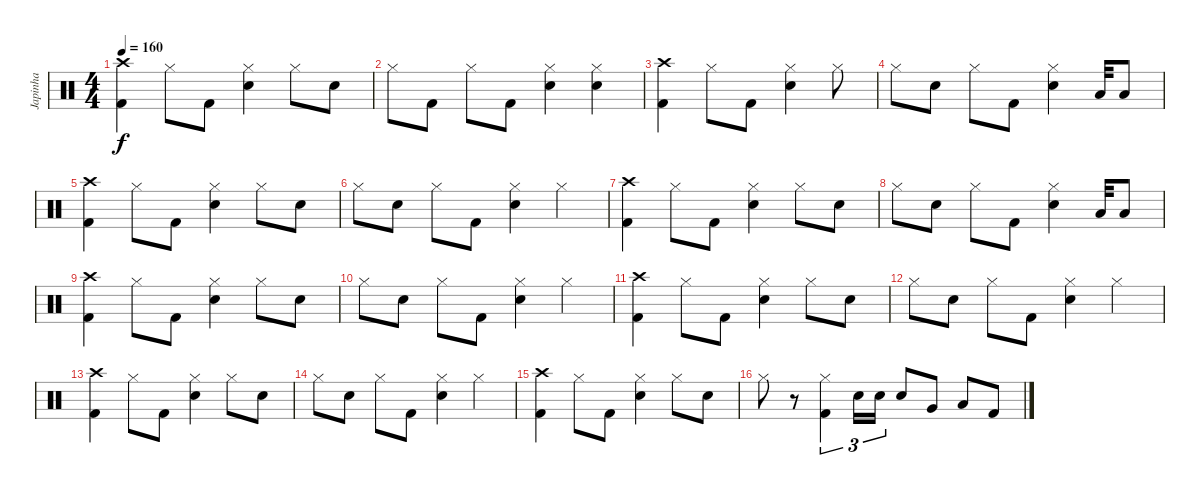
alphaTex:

\track ("Japinha" "Japinha") {instrument percussion}
\staff {score}
\articulation defaults
\ts (4 4)
\tempo 160
\clef neutral
\ks c
("Crash high (hit)" "Kick (hit) 2").4{dy f} "Hi-Hat (closed)".8 "Kick (hit) 2".8 ("Hi-Hat (closed)" "Snare (hit) 2").4 "Hi-Hat (closed)".8 "Snare (hit) 2".8 |
"Hi-Hat (closed)".8 "Kick (hit) 2".8 "Hi-Hat (closed)".8 "Kick (hit) 2".8 ("Hi-Hat (closed)" "Snare (hit) 2").4 ("Hi-Hat (closed)" "Snare (hit) 2").4 |
("Crash high (hit)" "Kick (hit) 2").4 "Hi-Hat (closed)".8 "Kick (hit) 2".8 ("Hi-Hat (closed)" "Snare (hit) 2").4 "Hi-Hat (closed)".8 |
"Hi-Hat (closed)".8 "Snare (hit) 2".8 "Hi-Hat (closed)".8 "Kick (hit) 2".8 ("Hi-Hat (closed)" "Snare (hit) 2").4 "Low Tom (hit)".32 "Low Tom (hit)".8 |
("Crash high (hit)" "Kick (hit) 2").4 "Hi-Hat (closed)".8 "Kick (hit) 2".8 ("Hi-Hat (closed)" "Snare (hit) 2").4 "Hi-Hat (closed)".8 "Snare (hit) 2".8 |
"Hi-Hat (closed)".8 "Snare (hit) 2".8 "Hi-Hat (closed)".8 "Kick (hit) 2".8 ("Hi-Hat (closed)" "Snare (hit) 2").4 "Hi-Hat (closed)".4 |
("Crash high (hit)" "Kick (hit) 2").4 "Hi-Hat (closed)".8 "Kick (hit) 2".8 ("Hi-Hat (closed)" "Snare (hit) 2").4 "Hi-Hat (closed)".8 "Snare (hit) 2".8 |
"Hi-Hat (closed)".8 "Snare (hit) 2".8 "Hi-Hat (closed)".8 "Kick (hit) 2".8 ("Hi-Hat (closed)" "Snare (hit) 2").4 "Low Tom (hit)".32 "Low Tom (hit)".8 |
("Crash high (hit)" "Kick (hit) 2").4 "Hi-Hat (closed)".8 "Kick (hit) 2".8 ("Hi-Hat (closed)" "Snare (hit) 2").4 "Hi-Hat (closed)".8 "Snare (hit) 2".8 |
"Hi-Hat (closed)".8 "Snare (hit) 2".8 "Hi-Hat (closed)".8 "Kick (hit) 2".8 ("Hi-Hat (closed)" "Snare (hit) 2").4 "Hi-Hat (closed)".4 |
("Crash high (hit)" "Kick (hit) 2").4 "Hi-Hat (closed)".8 "Kick (hit) 2".8 ("Hi-Hat (closed)" "Snare (hit) 2").4 "Hi-Hat (closed)".8 "Snare (hit) 2".8 |
"Hi-Hat (closed)".8 "Snare (hit) 2".8 "Hi-Hat (closed)".8 "Kick (hit) 2".8 ("Hi-Hat (closed)" "Snare (hit) 2").4 "Hi-Hat (closed)".4 |
("Crash high (hit)" "Kick (hit) 2").4 "Hi-Hat (closed)".8 "Kick (hit) 2".8 ("Hi-Hat (closed)" "Snare (hit) 2").4 "Hi-Hat (closed)".8 "Snare (hit) 2".8 |
"Hi-Hat (closed)".8 "Snare (hit) 2".8 "Hi-Hat (closed)".8 "Kick (hit) 2".8 ("Hi-Hat (closed)" "Snare (hit) 2").4 "Hi-Hat (closed)".4 |
("Crash high (hit)" "Kick (hit) 2").4 "Hi-Hat (closed)".8 "Kick (hit) 2".8 ("Hi-Hat (closed)" "Snare (hit) 2").4 "Hi-Hat (closed)".8 "Snare (hit) 2".8 |
"Hi-Hat (closed)".8 r.8 ("Hi-Hat (closed)" "Kick (hit) 2").4{tu (3 2)} "Snare (hit) 2".16{tu (3 2)} "Snare (hit) 2".16{tu (3 2)} "Snare (hit) 2".8 "Very Low Tom (hit)".8 "Low Tom (hit)".8 "Kick (hit) 2".8
